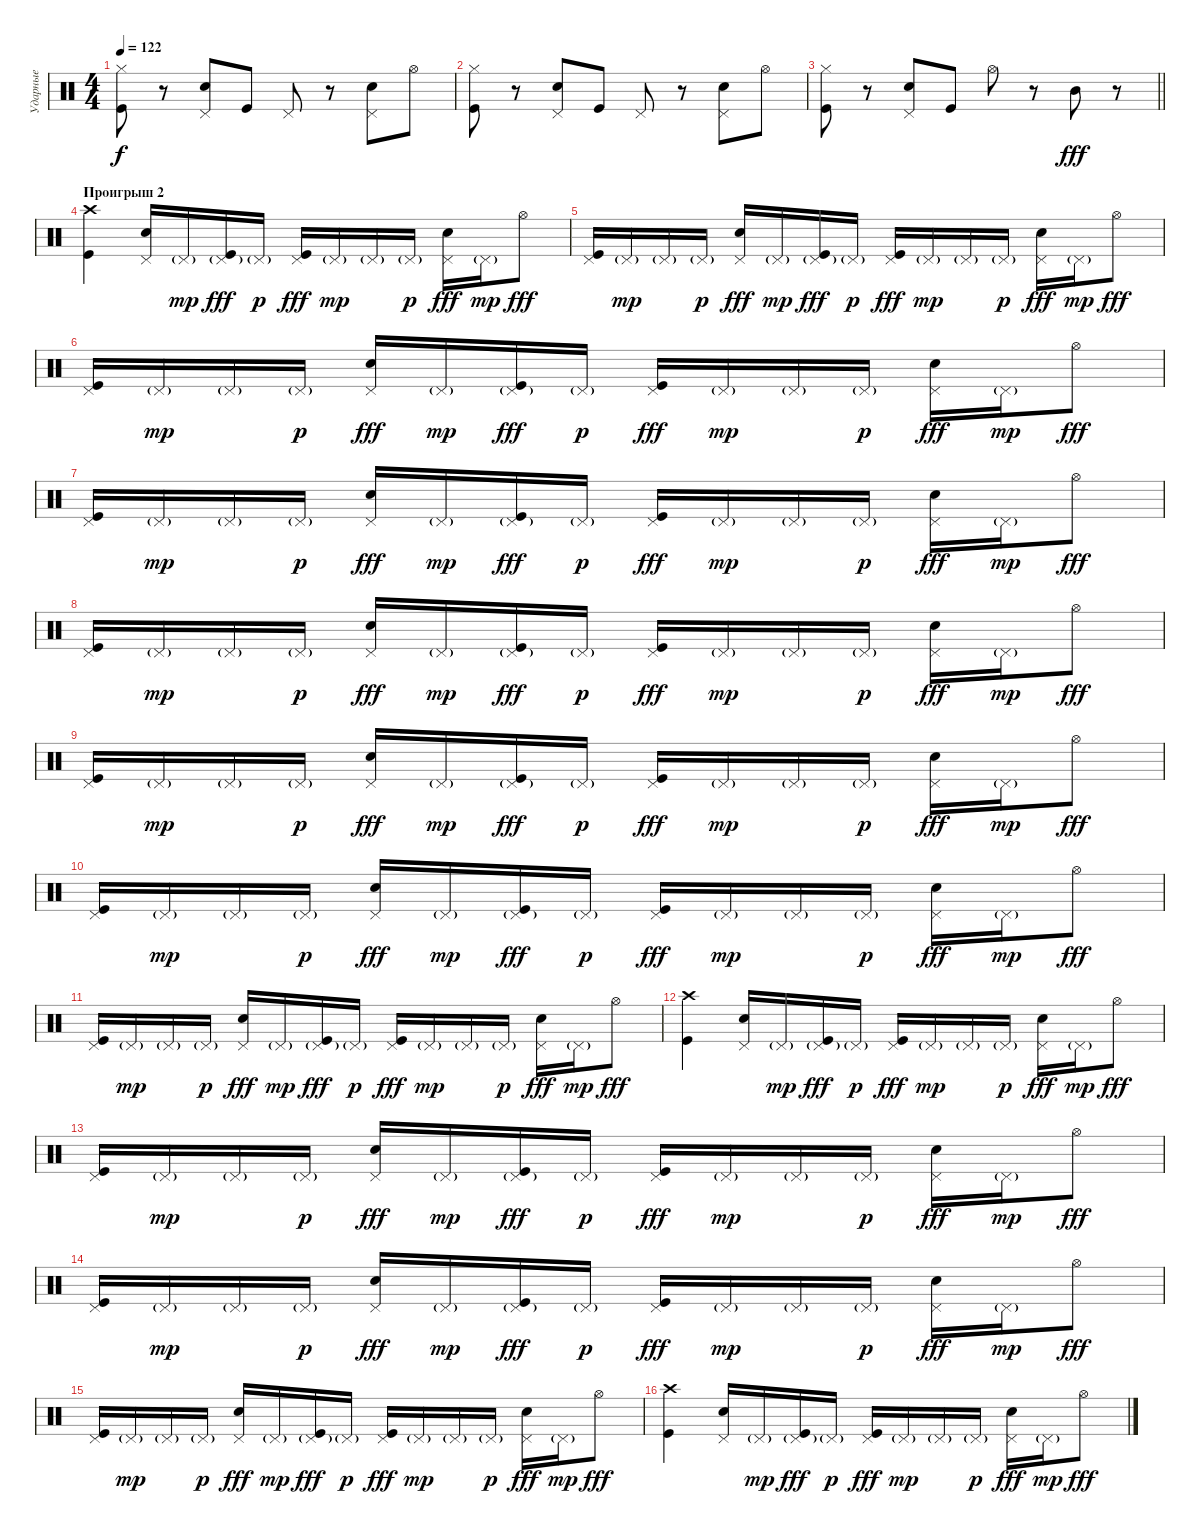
\track ("Ударные" "Ударные") {instrument percussion}
\staff {score}
\articulation defaults
\ts (4 4)
\tempo 122
\clef neutral
\ks c
("Hi-Hat (closed)" "Kick (hit)").8{dy f} r.8 ("Pedal Hi-Hat (hit)" "Snare (hit) 2").8 "Kick (hit)".8 "Pedal Hi-Hat (hit)".8 r.8 ("Pedal Hi-Hat (hit)" "Snare (hit) 2").8 "Hi-Hat (open)".8 |
("Hi-Hat (closed)" "Kick (hit)").8 r.8 ("Pedal Hi-Hat (hit)" "Snare (hit) 2").8 "Kick (hit)".8 "Pedal Hi-Hat (hit)".8 r.8 ("Pedal Hi-Hat (hit)" "Snare (hit) 2").8 "Hi-Hat (open)".8 |
\barLineRight lightlight
("Hi-Hat (closed)" "Kick (hit)").8 r.8 ("Pedal Hi-Hat (hit)" "Snare (hit) 2").8 "Kick (hit)".8 "Hi-Hat (open)".8 r.8 "Mid Tom (hit)".8{dy fff} r.8 |
\section ("" "Проигрыш 2")
("Crash high (hit)" "Kick (hit)").4 ("Pedal Hi-Hat (hit)" "Electric Snare (hit)").16 "Pedal Hi-Hat (hit)"{g}.16{dy mp} ("Pedal Hi-Hat (hit)"{g} "Kick (hit)").16{dy fff} "Pedal Hi-Hat (hit)"{g}.16{dy p} ("Pedal Hi-Hat (hit)" "Kick (hit)").16{dy fff} "Pedal Hi-Hat (hit)"{g}.16{dy mp} "Pedal Hi-Hat (hit)"{g}.16 "Pedal Hi-Hat (hit)"{g}.16{dy p} ("Pedal Hi-Hat (hit)" "Electric Snare (hit)").16{dy fff} "Pedal Hi-Hat (hit)"{g}.16{dy mp} "Hi-Hat (open)".8{dy fff} |
("Pedal Hi-Hat (hit)" "Kick (hit)").16 "Pedal Hi-Hat (hit)"{g}.16{dy mp} "Pedal Hi-Hat (hit)"{g}.16 "Pedal Hi-Hat (hit)"{g}.16{dy p} ("Pedal Hi-Hat (hit)" "Electric Snare (hit)").16{dy fff} "Pedal Hi-Hat (hit)"{g}.16{dy mp} ("Pedal Hi-Hat (hit)"{g} "Kick (hit)").16{dy fff} "Pedal Hi-Hat (hit)"{g}.16{dy p} ("Pedal Hi-Hat (hit)" "Kick (hit)").16{dy fff} "Pedal Hi-Hat (hit)"{g}.16{dy mp} "Pedal Hi-Hat (hit)"{g}.16 "Pedal Hi-Hat (hit)"{g}.16{dy p} ("Pedal Hi-Hat (hit)" "Electric Snare (hit)").16{dy fff} "Pedal Hi-Hat (hit)"{g}.16{dy mp} "Hi-Hat (open)".8{dy fff} |
("Pedal Hi-Hat (hit)" "Kick (hit)").16 "Pedal Hi-Hat (hit)"{g}.16{dy mp} "Pedal Hi-Hat (hit)"{g}.16 "Pedal Hi-Hat (hit)"{g}.16{dy p} ("Pedal Hi-Hat (hit)" "Electric Snare (hit)").16{dy fff} "Pedal Hi-Hat (hit)"{g}.16{dy mp} ("Pedal Hi-Hat (hit)"{g} "Kick (hit)").16{dy fff} "Pedal Hi-Hat (hit)"{g}.16{dy p} ("Pedal Hi-Hat (hit)" "Kick (hit)").16{dy fff} "Pedal Hi-Hat (hit)"{g}.16{dy mp} "Pedal Hi-Hat (hit)"{g}.16 "Pedal Hi-Hat (hit)"{g}.16{dy p} ("Pedal Hi-Hat (hit)" "Electric Snare (hit)").16{dy fff} "Pedal Hi-Hat (hit)"{g}.16{dy mp} "Hi-Hat (open)".8{dy fff} |
("Pedal Hi-Hat (hit)" "Kick (hit)").16 "Pedal Hi-Hat (hit)"{g}.16{dy mp} "Pedal Hi-Hat (hit)"{g}.16 "Pedal Hi-Hat (hit)"{g}.16{dy p} ("Pedal Hi-Hat (hit)" "Electric Snare (hit)").16{dy fff} "Pedal Hi-Hat (hit)"{g}.16{dy mp} ("Pedal Hi-Hat (hit)"{g} "Kick (hit)").16{dy fff} "Pedal Hi-Hat (hit)"{g}.16{dy p} ("Pedal Hi-Hat (hit)" "Kick (hit)").16{dy fff} "Pedal Hi-Hat (hit)"{g}.16{dy mp} "Pedal Hi-Hat (hit)"{g}.16 "Pedal Hi-Hat (hit)"{g}.16{dy p} ("Pedal Hi-Hat (hit)" "Electric Snare (hit)").16{dy fff} "Pedal Hi-Hat (hit)"{g}.16{dy mp} "Hi-Hat (open)".8{dy fff} |
("Pedal Hi-Hat (hit)" "Kick (hit)").16 "Pedal Hi-Hat (hit)"{g}.16{dy mp} "Pedal Hi-Hat (hit)"{g}.16 "Pedal Hi-Hat (hit)"{g}.16{dy p} ("Pedal Hi-Hat (hit)" "Electric Snare (hit)").16{dy fff} "Pedal Hi-Hat (hit)"{g}.16{dy mp} ("Pedal Hi-Hat (hit)"{g} "Kick (hit)").16{dy fff} "Pedal Hi-Hat (hit)"{g}.16{dy p} ("Pedal Hi-Hat (hit)" "Kick (hit)").16{dy fff} "Pedal Hi-Hat (hit)"{g}.16{dy mp} "Pedal Hi-Hat (hit)"{g}.16 "Pedal Hi-Hat (hit)"{g}.16{dy p} ("Pedal Hi-Hat (hit)" "Electric Snare (hit)").16{dy fff} "Pedal Hi-Hat (hit)"{g}.16{dy mp} "Hi-Hat (open)".8{dy fff} |
("Pedal Hi-Hat (hit)" "Kick (hit)").16 "Pedal Hi-Hat (hit)"{g}.16{dy mp} "Pedal Hi-Hat (hit)"{g}.16 "Pedal Hi-Hat (hit)"{g}.16{dy p} ("Pedal Hi-Hat (hit)" "Electric Snare (hit)").16{dy fff} "Pedal Hi-Hat (hit)"{g}.16{dy mp} ("Pedal Hi-Hat (hit)"{g} "Kick (hit)").16{dy fff} "Pedal Hi-Hat (hit)"{g}.16{dy p} ("Pedal Hi-Hat (hit)" "Kick (hit)").16{dy fff} "Pedal Hi-Hat (hit)"{g}.16{dy mp} "Pedal Hi-Hat (hit)"{g}.16 "Pedal Hi-Hat (hit)"{g}.16{dy p} ("Pedal Hi-Hat (hit)" "Electric Snare (hit)").16{dy fff} "Pedal Hi-Hat (hit)"{g}.16{dy mp} "Hi-Hat (open)".8{dy fff} |
("Pedal Hi-Hat (hit)" "Kick (hit)").16 "Pedal Hi-Hat (hit)"{g}.16{dy mp} "Pedal Hi-Hat (hit)"{g}.16 "Pedal Hi-Hat (hit)"{g}.16{dy p} ("Pedal Hi-Hat (hit)" "Electric Snare (hit)").16{dy fff} "Pedal Hi-Hat (hit)"{g}.16{dy mp} ("Pedal Hi-Hat (hit)"{g} "Kick (hit)").16{dy fff} "Pedal Hi-Hat (hit)"{g}.16{dy p} ("Pedal Hi-Hat (hit)" "Kick (hit)").16{dy fff} "Pedal Hi-Hat (hit)"{g}.16{dy mp} "Pedal Hi-Hat (hit)"{g}.16 "Pedal Hi-Hat (hit)"{g}.16{dy p} ("Pedal Hi-Hat (hit)" "Electric Snare (hit)").16{dy fff} "Pedal Hi-Hat (hit)"{g}.16{dy mp} "Hi-Hat (open)".8{dy fff} |
("Pedal Hi-Hat (hit)" "Kick (hit)").16 "Pedal Hi-Hat (hit)"{g}.16{dy mp} "Pedal Hi-Hat (hit)"{g}.16 "Pedal Hi-Hat (hit)"{g}.16{dy p} ("Pedal Hi-Hat (hit)" "Electric Snare (hit)").16{dy fff} "Pedal Hi-Hat (hit)"{g}.16{dy mp} ("Pedal Hi-Hat (hit)"{g} "Kick (hit)").16{dy fff} "Pedal Hi-Hat (hit)"{g}.16{dy p} ("Pedal Hi-Hat (hit)" "Kick (hit)").16{dy fff} "Pedal Hi-Hat (hit)"{g}.16{dy mp} "Pedal Hi-Hat (hit)"{g}.16 "Pedal Hi-Hat (hit)"{g}.16{dy p} ("Pedal Hi-Hat (hit)" "Electric Snare (hit)").16{dy fff} "Pedal Hi-Hat (hit)"{g}.16{dy mp} "Hi-Hat (open)".8{dy fff} |
("Crash high (hit)" "Kick (hit)").4 ("Pedal Hi-Hat (hit)" "Electric Snare (hit)").16 "Pedal Hi-Hat (hit)"{g}.16{dy mp} ("Pedal Hi-Hat (hit)"{g} "Kick (hit)").16{dy fff} "Pedal Hi-Hat (hit)"{g}.16{dy p} ("Pedal Hi-Hat (hit)" "Kick (hit)").16{dy fff} "Pedal Hi-Hat (hit)"{g}.16{dy mp} "Pedal Hi-Hat (hit)"{g}.16 "Pedal Hi-Hat (hit)"{g}.16{dy p} ("Pedal Hi-Hat (hit)" "Electric Snare (hit)").16{dy fff} "Pedal Hi-Hat (hit)"{g}.16{dy mp} "Hi-Hat (open)".8{dy fff} |
("Pedal Hi-Hat (hit)" "Kick (hit)").16 "Pedal Hi-Hat (hit)"{g}.16{dy mp} "Pedal Hi-Hat (hit)"{g}.16 "Pedal Hi-Hat (hit)"{g}.16{dy p} ("Pedal Hi-Hat (hit)" "Electric Snare (hit)").16{dy fff} "Pedal Hi-Hat (hit)"{g}.16{dy mp} ("Pedal Hi-Hat (hit)"{g} "Kick (hit)").16{dy fff} "Pedal Hi-Hat (hit)"{g}.16{dy p} ("Pedal Hi-Hat (hit)" "Kick (hit)").16{dy fff} "Pedal Hi-Hat (hit)"{g}.16{dy mp} "Pedal Hi-Hat (hit)"{g}.16 "Pedal Hi-Hat (hit)"{g}.16{dy p} ("Pedal Hi-Hat (hit)" "Electric Snare (hit)").16{dy fff} "Pedal Hi-Hat (hit)"{g}.16{dy mp} "Hi-Hat (open)".8{dy fff} |
("Pedal Hi-Hat (hit)" "Kick (hit)").16 "Pedal Hi-Hat (hit)"{g}.16{dy mp} "Pedal Hi-Hat (hit)"{g}.16 "Pedal Hi-Hat (hit)"{g}.16{dy p} ("Pedal Hi-Hat (hit)" "Electric Snare (hit)").16{dy fff} "Pedal Hi-Hat (hit)"{g}.16{dy mp} ("Pedal Hi-Hat (hit)"{g} "Kick (hit)").16{dy fff} "Pedal Hi-Hat (hit)"{g}.16{dy p} ("Pedal Hi-Hat (hit)" "Kick (hit)").16{dy fff} "Pedal Hi-Hat (hit)"{g}.16{dy mp} "Pedal Hi-Hat (hit)"{g}.16 "Pedal Hi-Hat (hit)"{g}.16{dy p} ("Pedal Hi-Hat (hit)" "Electric Snare (hit)").16{dy fff} "Pedal Hi-Hat (hit)"{g}.16{dy mp} "Hi-Hat (open)".8{dy fff} |
("Pedal Hi-Hat (hit)" "Kick (hit)").16 "Pedal Hi-Hat (hit)"{g}.16{dy mp} "Pedal Hi-Hat (hit)"{g}.16 "Pedal Hi-Hat (hit)"{g}.16{dy p} ("Pedal Hi-Hat (hit)" "Electric Snare (hit)").16{dy fff} "Pedal Hi-Hat (hit)"{g}.16{dy mp} ("Pedal Hi-Hat (hit)"{g} "Kick (hit)").16{dy fff} "Pedal Hi-Hat (hit)"{g}.16{dy p} ("Pedal Hi-Hat (hit)" "Kick (hit)").16{dy fff} "Pedal Hi-Hat (hit)"{g}.16{dy mp} "Pedal Hi-Hat (hit)"{g}.16 "Pedal Hi-Hat (hit)"{g}.16{dy p} ("Pedal Hi-Hat (hit)" "Electric Snare (hit)").16{dy fff} "Pedal Hi-Hat (hit)"{g}.16{dy mp} "Hi-Hat (open)".8{dy fff} |
("Crash high (hit)" "Kick (hit)").4 ("Pedal Hi-Hat (hit)" "Electric Snare (hit)").16 "Pedal Hi-Hat (hit)"{g}.16{dy mp} ("Pedal Hi-Hat (hit)"{g} "Kick (hit)").16{dy fff} "Pedal Hi-Hat (hit)"{g}.16{dy p} ("Pedal Hi-Hat (hit)" "Kick (hit)").16{dy fff} "Pedal Hi-Hat (hit)"{g}.16{dy mp} "Pedal Hi-Hat (hit)"{g}.16 "Pedal Hi-Hat (hit)"{g}.16{dy p} ("Pedal Hi-Hat (hit)" "Electric Snare (hit)").16{dy fff} "Pedal Hi-Hat (hit)"{g}.16{dy mp} "Hi-Hat (open)".8{dy fff}
